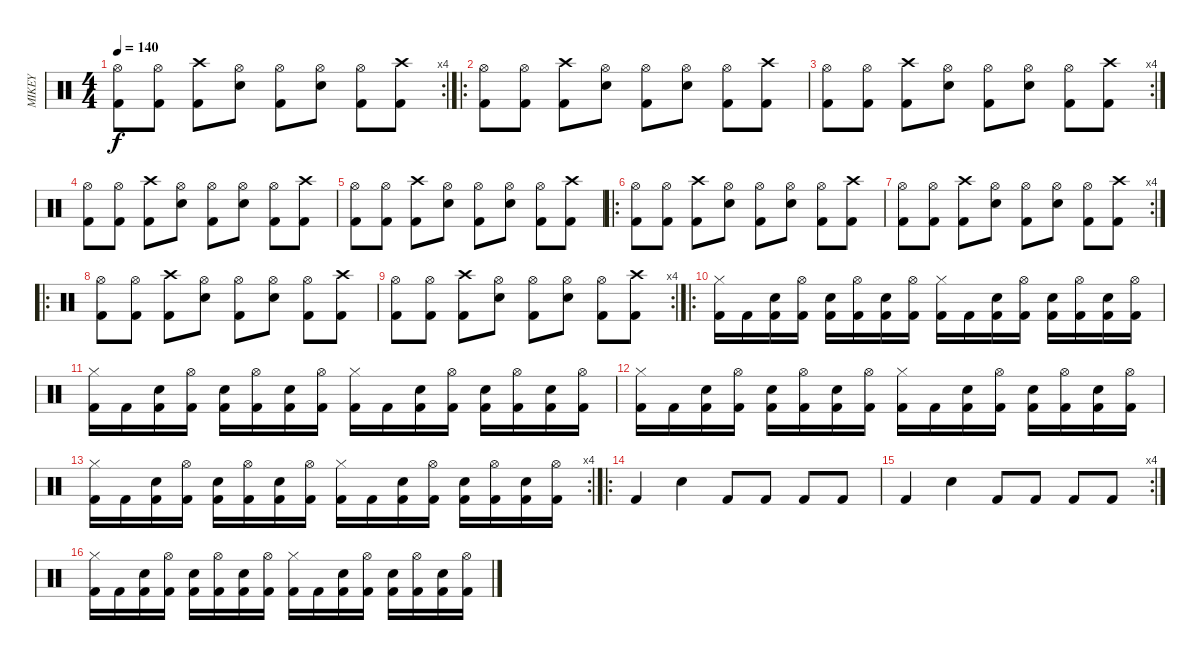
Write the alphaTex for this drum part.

\track ("MIKEY" "MIKEY") {instrument percussion}
\staff {score}
\articulation defaults
\rc 4
\ts (4 4)
\tempo 140
\clef neutral
\ks c
("Hi-Hat (open)" "Kick (hit) 2").8{dy f} ("Hi-Hat (open)" "Kick (hit) 2").8 ("Crash high (hit)" "Kick (hit) 2").8 ("Hi-Hat (open)" "Snare (hit) 2").8 ("Hi-Hat (open)" "Kick (hit) 2").8 ("Hi-Hat (open)" "Snare (hit) 2").8 ("Hi-Hat (open)" "Kick (hit) 2").8 ("Crash high (hit)" "Kick (hit) 2").8 |
\ro
("Hi-Hat (open)" "Kick (hit) 2").8 ("Hi-Hat (open)" "Kick (hit) 2").8 ("Crash high (hit)" "Kick (hit) 2").8 ("Hi-Hat (open)" "Snare (hit) 2").8 ("Hi-Hat (open)" "Kick (hit) 2").8 ("Hi-Hat (open)" "Snare (hit) 2").8 ("Hi-Hat (open)" "Kick (hit) 2").8 ("Crash high (hit)" "Kick (hit) 2").8 |
\rc 4
("Hi-Hat (open)" "Kick (hit) 2").8 ("Hi-Hat (open)" "Kick (hit) 2").8 ("Crash high (hit)" "Kick (hit) 2").8 ("Hi-Hat (open)" "Snare (hit) 2").8 ("Hi-Hat (open)" "Kick (hit) 2").8 ("Hi-Hat (open)" "Snare (hit) 2").8 ("Hi-Hat (open)" "Kick (hit) 2").8 ("Crash high (hit)" "Kick (hit) 2").8 |
("Hi-Hat (open)" "Kick (hit) 2").8 ("Hi-Hat (open)" "Kick (hit) 2").8 ("Crash high (hit)" "Kick (hit) 2").8 ("Hi-Hat (open)" "Snare (hit) 2").8 ("Hi-Hat (open)" "Kick (hit) 2").8 ("Hi-Hat (open)" "Snare (hit) 2").8 ("Hi-Hat (open)" "Kick (hit) 2").8 ("Crash high (hit)" "Kick (hit) 2").8 |
("Hi-Hat (open)" "Kick (hit) 2").8 ("Hi-Hat (open)" "Kick (hit) 2").8 ("Crash high (hit)" "Kick (hit) 2").8 ("Hi-Hat (open)" "Snare (hit) 2").8 ("Hi-Hat (open)" "Kick (hit) 2").8 ("Hi-Hat (open)" "Snare (hit) 2").8 ("Hi-Hat (open)" "Kick (hit) 2").8 ("Crash high (hit)" "Kick (hit) 2").8 |
\ro
("Hi-Hat (open)" "Kick (hit) 2").8 ("Hi-Hat (open)" "Kick (hit) 2").8 ("Crash high (hit)" "Kick (hit) 2").8 ("Hi-Hat (open)" "Snare (hit) 2").8 ("Hi-Hat (open)" "Kick (hit) 2").8 ("Hi-Hat (open)" "Snare (hit) 2").8 ("Hi-Hat (open)" "Kick (hit) 2").8 ("Crash high (hit)" "Kick (hit) 2").8 |
\rc 4
("Hi-Hat (open)" "Kick (hit) 2").8 ("Hi-Hat (open)" "Kick (hit) 2").8 ("Crash high (hit)" "Kick (hit) 2").8 ("Hi-Hat (open)" "Snare (hit) 2").8 ("Hi-Hat (open)" "Kick (hit) 2").8 ("Hi-Hat (open)" "Snare (hit) 2").8 ("Hi-Hat (open)" "Kick (hit) 2").8 ("Crash high (hit)" "Kick (hit) 2").8 |
\ro
("Hi-Hat (open)" "Kick (hit) 2").8 ("Hi-Hat (open)" "Kick (hit) 2").8 ("Crash high (hit)" "Kick (hit) 2").8 ("Hi-Hat (open)" "Snare (hit) 2").8 ("Hi-Hat (open)" "Kick (hit) 2").8 ("Hi-Hat (open)" "Snare (hit) 2").8 ("Hi-Hat (open)" "Kick (hit) 2").8 ("Crash high (hit)" "Kick (hit) 2").8 |
\rc 4
("Hi-Hat (open)" "Kick (hit) 2").8 ("Hi-Hat (open)" "Kick (hit) 2").8 ("Crash high (hit)" "Kick (hit) 2").8 ("Hi-Hat (open)" "Snare (hit) 2").8 ("Hi-Hat (open)" "Kick (hit) 2").8 ("Hi-Hat (open)" "Snare (hit) 2").8 ("Hi-Hat (open)" "Kick (hit) 2").8 ("Crash high (hit)" "Kick (hit) 2").8 |
\ro
("Hi-Hat (closed)" "Kick (hit) 2").16 "Kick (hit) 2".16 ("Electric Snare (hit)" "Kick (hit) 2").16 ("Hi-Hat (open)" "Kick (hit) 2").16 ("Electric Snare (hit)" "Kick (hit) 2").16 ("Hi-Hat (open)" "Kick (hit) 2").16 ("Electric Snare (hit)" "Kick (hit) 2").16 ("Hi-Hat (open)" "Kick (hit) 2").16 ("Hi-Hat (closed)" "Kick (hit) 2").16 "Kick (hit) 2".16 ("Electric Snare (hit)" "Kick (hit) 2").16 ("Hi-Hat (open)" "Kick (hit) 2").16 ("Electric Snare (hit)" "Kick (hit) 2").16 ("Hi-Hat (open)" "Kick (hit) 2").16 ("Electric Snare (hit)" "Kick (hit) 2").16 ("Hi-Hat (open)" "Kick (hit) 2").16 |
("Hi-Hat (closed)" "Kick (hit) 2").16 "Kick (hit) 2".16 ("Electric Snare (hit)" "Kick (hit) 2").16 ("Hi-Hat (open)" "Kick (hit) 2").16 ("Electric Snare (hit)" "Kick (hit) 2").16 ("Hi-Hat (open)" "Kick (hit) 2").16 ("Electric Snare (hit)" "Kick (hit) 2").16 ("Hi-Hat (open)" "Kick (hit) 2").16 ("Hi-Hat (closed)" "Kick (hit) 2").16 "Kick (hit) 2".16 ("Electric Snare (hit)" "Kick (hit) 2").16 ("Hi-Hat (open)" "Kick (hit) 2").16 ("Electric Snare (hit)" "Kick (hit) 2").16 ("Hi-Hat (open)" "Kick (hit) 2").16 ("Electric Snare (hit)" "Kick (hit) 2").16 ("Hi-Hat (open)" "Kick (hit) 2").16 |
("Hi-Hat (closed)" "Kick (hit) 2").16 "Kick (hit) 2".16 ("Electric Snare (hit)" "Kick (hit) 2").16 ("Hi-Hat (open)" "Kick (hit) 2").16 ("Electric Snare (hit)" "Kick (hit) 2").16 ("Hi-Hat (open)" "Kick (hit) 2").16 ("Electric Snare (hit)" "Kick (hit) 2").16 ("Hi-Hat (open)" "Kick (hit) 2").16 ("Hi-Hat (closed)" "Kick (hit) 2").16 "Kick (hit) 2".16 ("Electric Snare (hit)" "Kick (hit) 2").16 ("Hi-Hat (open)" "Kick (hit) 2").16 ("Electric Snare (hit)" "Kick (hit) 2").16 ("Hi-Hat (open)" "Kick (hit) 2").16 ("Electric Snare (hit)" "Kick (hit) 2").16 ("Hi-Hat (open)" "Kick (hit) 2").16 |
\rc 4
("Hi-Hat (closed)" "Kick (hit) 2").16 "Kick (hit) 2".16 ("Electric Snare (hit)" "Kick (hit) 2").16 ("Hi-Hat (open)" "Kick (hit) 2").16 ("Electric Snare (hit)" "Kick (hit) 2").16 ("Hi-Hat (open)" "Kick (hit) 2").16 ("Electric Snare (hit)" "Kick (hit) 2").16 ("Hi-Hat (open)" "Kick (hit) 2").16 ("Hi-Hat (closed)" "Kick (hit) 2").16 "Kick (hit) 2".16 ("Electric Snare (hit)" "Kick (hit) 2").16 ("Hi-Hat (open)" "Kick (hit) 2").16 ("Electric Snare (hit)" "Kick (hit) 2").16 ("Hi-Hat (open)" "Kick (hit) 2").16 ("Electric Snare (hit)" "Kick (hit) 2").16 ("Hi-Hat (open)" "Kick (hit) 2").16 |
\ro "Kick (hit) 2".4 "Electric Snare (hit)".4 "Kick (hit) 2".8 "Kick (hit) 2".8 "Kick (hit) 2".8 "Kick (hit) 2".8
|
\rc 4 "Kick (hit) 2".4 "Electric Snare (hit)".4 "Kick (hit) 2".8 "Kick (hit) 2".8 "Kick (hit) 2".8 "Kick (hit) 2".8
|
("Hi-Hat (closed)" "Kick (hit) 2").16 "Kick (hit) 2".16 ("Electric Snare (hit)" "Kick (hit) 2").16 ("Hi-Hat (open)" "Kick (hit) 2").16 ("Electric Snare (hit)" "Kick (hit) 2").16 ("Hi-Hat (open)" "Kick (hit) 2").16 ("Electric Snare (hit)" "Kick (hit) 2").16 ("Hi-Hat (open)" "Kick (hit) 2").16 ("Hi-Hat (closed)" "Kick (hit) 2").16 "Kick (hit) 2".16 ("Electric Snare (hit)" "Kick (hit) 2").16 ("Hi-Hat (open)" "Kick (hit) 2").16 ("Electric Snare (hit)" "Kick (hit) 2").16 ("Hi-Hat (open)" "Kick (hit) 2").16 ("Electric Snare (hit)" "Kick (hit) 2").16 ("Hi-Hat (open)" "Kick (hit) 2").16
